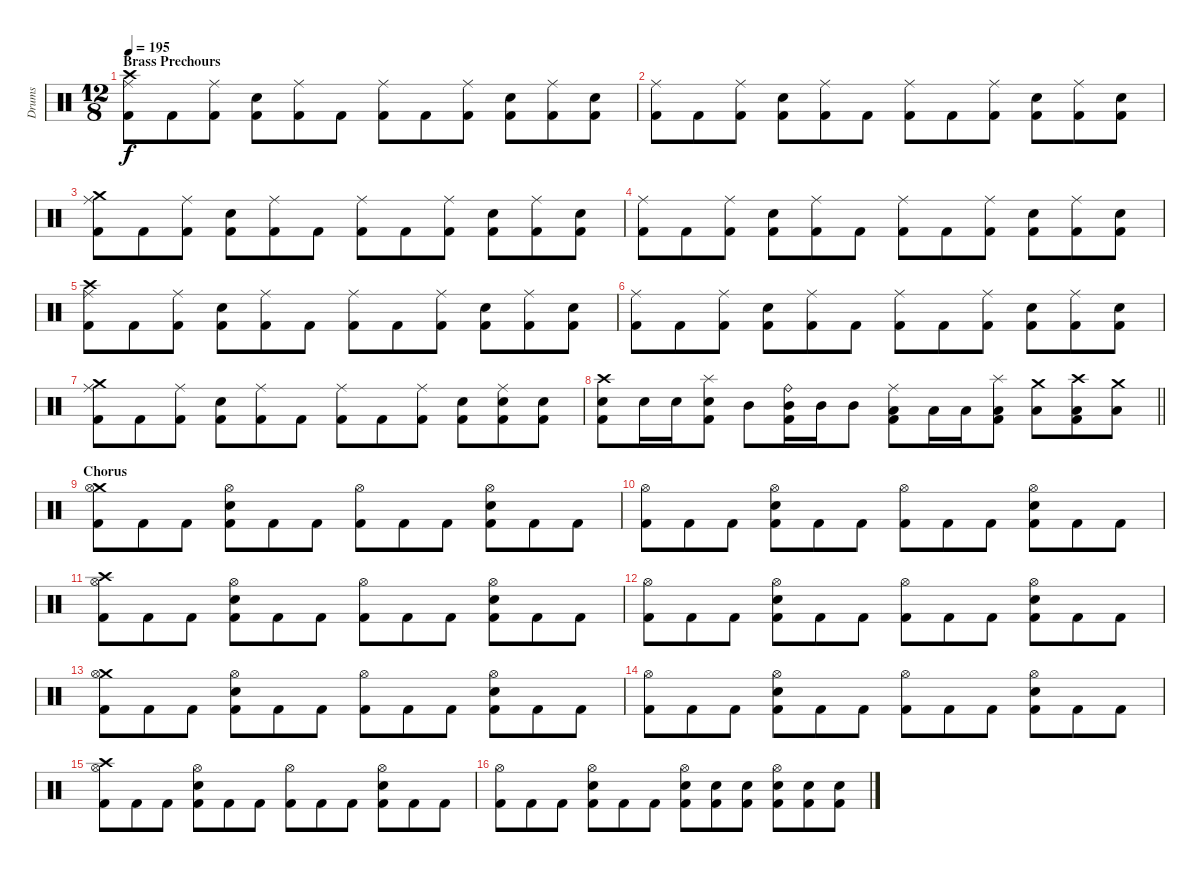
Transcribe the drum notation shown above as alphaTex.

\track ("Drums" "Drums") {instrument percussion}
\staff {score}
\articulation defaults
\ts (12 8)
\section ("" "Brass Prechours")
\tempo 195
\clef neutral
\ks c
("Crash high (hit)" "Ride (middle)" "Kick (hit) 2").8{dy f} "Kick (hit) 2".8 ("Ride (middle)" "Kick (hit) 2").8 ("Snare (hit) 2" "Kick (hit) 2").8 ("Ride (middle)" "Kick (hit) 2").8 "Kick (hit) 2".8 ("Ride (middle)" "Kick (hit) 2").8 "Kick (hit) 2".8 ("Ride (middle)" "Kick (hit) 2").8 ("Snare (hit) 2" "Kick (hit) 2").8 ("Ride (middle)" "Kick (hit) 2").8 ("Snare (hit) 2" "Kick (hit) 2").8 |
("Ride (middle)" "Kick (hit) 2").8 "Kick (hit) 2".8 ("Ride (middle)" "Kick (hit) 2").8 ("Snare (hit) 2" "Kick (hit) 2").8 ("Ride (middle)" "Kick (hit) 2").8 "Kick (hit) 2".8 ("Ride (middle)" "Kick (hit) 2").8 "Kick (hit) 2".8 ("Ride (middle)" "Kick (hit) 2").8 ("Snare (hit) 2" "Kick (hit) 2").8 ("Ride (middle)" "Kick (hit) 2").8 ("Snare (hit) 2" "Kick (hit) 2").8 |
("Crash medium (hit)" "Ride (middle)" "Kick (hit) 2").8 "Kick (hit) 2".8 ("Ride (middle)" "Kick (hit) 2").8 ("Snare (hit) 2" "Kick (hit) 2").8 ("Ride (middle)" "Kick (hit) 2").8 "Kick (hit) 2".8 ("Ride (middle)" "Kick (hit) 2").8 "Kick (hit) 2".8 ("Ride (middle)" "Kick (hit) 2").8 ("Snare (hit) 2" "Kick (hit) 2").8 ("Ride (middle)" "Kick (hit) 2").8 ("Snare (hit) 2" "Kick (hit) 2").8 |
("Ride (middle)" "Kick (hit) 2").8 "Kick (hit) 2".8 ("Ride (middle)" "Kick (hit) 2").8 ("Snare (hit) 2" "Kick (hit) 2").8 ("Ride (middle)" "Kick (hit) 2").8 "Kick (hit) 2".8 ("Ride (middle)" "Kick (hit) 2").8 "Kick (hit) 2".8 ("Ride (middle)" "Kick (hit) 2").8 ("Snare (hit) 2" "Kick (hit) 2").8 ("Ride (middle)" "Kick (hit) 2").8 ("Snare (hit) 2" "Kick (hit) 2").8 |
("Crash high (hit)" "Ride (middle)" "Kick (hit) 2").8 "Kick (hit) 2".8 ("Ride (middle)" "Kick (hit) 2").8 ("Snare (hit) 2" "Kick (hit) 2").8 ("Ride (middle)" "Kick (hit) 2").8 "Kick (hit) 2".8 ("Ride (middle)" "Kick (hit) 2").8 "Kick (hit) 2".8 ("Ride (middle)" "Kick (hit) 2").8 ("Snare (hit) 2" "Kick (hit) 2").8 ("Ride (middle)" "Kick (hit) 2").8 ("Snare (hit) 2" "Kick (hit) 2").8 |
("Ride (middle)" "Kick (hit) 2").8 "Kick (hit) 2".8 ("Ride (middle)" "Kick (hit) 2").8 ("Snare (hit) 2" "Kick (hit) 2").8 ("Ride (middle)" "Kick (hit) 2").8 "Kick (hit) 2".8 ("Ride (middle)" "Kick (hit) 2").8 "Kick (hit) 2".8 ("Ride (middle)" "Kick (hit) 2").8 ("Snare (hit) 2" "Kick (hit) 2").8 ("Ride (middle)" "Kick (hit) 2").8 ("Snare (hit) 2" "Kick (hit) 2").8 |
("Crash medium (hit)" "Ride (middle)" "Kick (hit) 2").8 "Kick (hit) 2".8 ("Ride (middle)" "Kick (hit) 2").8 ("Snare (hit) 2" "Kick (hit) 2").8 ("Ride (middle)" "Kick (hit) 2").8 "Kick (hit) 2".8 ("Ride (middle)" "Kick (hit) 2").8 "Kick (hit) 2".8 ("Ride (middle)" "Kick (hit) 2").8 ("Snare (hit) 2" "Kick (hit) 2").8 ("Ride (middle)" "Snare (hit) 2" "Kick (hit) 2").8 ("Snare (hit) 2" "Kick (hit) 2").8 |
\barLineRight lightlight
("Crash high (hit)" "Snare (hit) 2" "Kick (hit) 2").8 "Snare (hit) 2".16 "Snare (hit) 2".16 ("Splash (hit)" "Snare (hit) 2" "Kick (hit) 2").8 "Mid Tom (hit)".8 ("Ride (bell)" "Mid Tom (hit)" "Kick (hit) 2").16 "Mid Tom (hit)".16 "Mid Tom (hit)".8 ("Ride (middle)" "Low Tom (hit)" "Kick (hit) 2").8 "Low Tom (hit)".16 "Low Tom (hit)".16 ("Splash (hit)" "Low Tom (hit)" "Kick (hit) 2").8 ("Crash medium (hit)" "Low Floor Tom (hit)").8 ("Crash high (hit)" "Low Floor Tom (hit)" "Kick (hit) 2").8 ("Crash medium (hit)" "Low Floor Tom (hit)").8 |
\section ("" "Chorus")
("Crash medium (hit)" "Hi-Hat (open)" "Kick (hit) 2").8 "Kick (hit) 2".8 "Kick (hit) 2".8 ("Hi-Hat (open)" "Snare (hit) 2" "Kick (hit) 2").8 "Kick (hit) 2".8 "Kick (hit) 2".8 ("Hi-Hat (open)" "Kick (hit) 2").8 "Kick (hit) 2".8 "Kick (hit) 2".8 ("Hi-Hat (open)" "Snare (hit) 2" "Kick (hit) 2").8 "Kick (hit) 2".8 "Kick (hit) 2".8 |
("Hi-Hat (open)" "Kick (hit) 2").8 "Kick (hit) 2".8 "Kick (hit) 2".8 ("Hi-Hat (open)" "Snare (hit) 2" "Kick (hit) 2").8 "Kick (hit) 2".8 "Kick (hit) 2".8 ("Hi-Hat (open)" "Kick (hit) 2").8 "Kick (hit) 2".8 "Kick (hit) 2".8 ("Hi-Hat (open)" "Snare (hit) 2" "Kick (hit) 2").8 "Kick (hit) 2".8 "Kick (hit) 2".8 |
("Crash high (hit)" "Hi-Hat (open)" "Kick (hit) 2").8 "Kick (hit) 2".8 "Kick (hit) 2".8 ("Hi-Hat (open)" "Snare (hit) 2" "Kick (hit) 2").8 "Kick (hit) 2".8 "Kick (hit) 2".8 ("Hi-Hat (open)" "Kick (hit) 2").8 "Kick (hit) 2".8 "Kick (hit) 2".8 ("Hi-Hat (open)" "Snare (hit) 2" "Kick (hit) 2").8 "Kick (hit) 2".8 "Kick (hit) 2".8 |
("Hi-Hat (open)" "Kick (hit) 2").8 "Kick (hit) 2".8 "Kick (hit) 2".8 ("Hi-Hat (open)" "Snare (hit) 2" "Kick (hit) 2").8 "Kick (hit) 2".8 "Kick (hit) 2".8 ("Hi-Hat (open)" "Kick (hit) 2").8 "Kick (hit) 2".8 "Kick (hit) 2".8 ("Hi-Hat (open)" "Snare (hit) 2" "Kick (hit) 2").8 "Kick (hit) 2".8 "Kick (hit) 2".8 |
("Crash medium (hit)" "Hi-Hat (open)" "Kick (hit) 2").8 "Kick (hit) 2".8 "Kick (hit) 2".8 ("Hi-Hat (open)" "Snare (hit) 2" "Kick (hit) 2").8 "Kick (hit) 2".8 "Kick (hit) 2".8 ("Hi-Hat (open)" "Kick (hit) 2").8 "Kick (hit) 2".8 "Kick (hit) 2".8 ("Hi-Hat (open)" "Snare (hit) 2" "Kick (hit) 2").8 "Kick (hit) 2".8 "Kick (hit) 2".8 |
("Hi-Hat (open)" "Kick (hit) 2").8 "Kick (hit) 2".8 "Kick (hit) 2".8 ("Hi-Hat (open)" "Snare (hit) 2" "Kick (hit) 2").8 "Kick (hit) 2".8 "Kick (hit) 2".8 ("Hi-Hat (open)" "Kick (hit) 2").8 "Kick (hit) 2".8 "Kick (hit) 2".8 ("Hi-Hat (open)" "Snare (hit) 2" "Kick (hit) 2").8 "Kick (hit) 2".8 "Kick (hit) 2".8 |
("Crash high (hit)" "Hi-Hat (open)" "Kick (hit) 2").8 "Kick (hit) 2".8 "Kick (hit) 2".8 ("Hi-Hat (open)" "Snare (hit) 2" "Kick (hit) 2").8 "Kick (hit) 2".8 "Kick (hit) 2".8 ("Hi-Hat (open)" "Kick (hit) 2").8 "Kick (hit) 2".8 "Kick (hit) 2".8 ("Hi-Hat (open)" "Snare (hit) 2" "Kick (hit) 2").8 "Kick (hit) 2".8 "Kick (hit) 2".8 |
("Hi-Hat (open)" "Kick (hit) 2").8 "Kick (hit) 2".8 "Kick (hit) 2".8 ("Hi-Hat (open)" "Snare (hit) 2" "Kick (hit) 2").8 "Kick (hit) 2".8 "Kick (hit) 2".8 ("Hi-Hat (open)" "Snare (hit) 2" "Kick (hit) 2").8 ("Snare (hit) 2" "Kick (hit) 2").8 ("Snare (hit) 2" "Kick (hit) 2").8 ("Hi-Hat (open)" "Snare (hit) 2" "Kick (hit) 2").8 ("Snare (hit) 2" "Kick (hit) 2").8 ("Snare (hit) 2" "Kick (hit) 2").8
